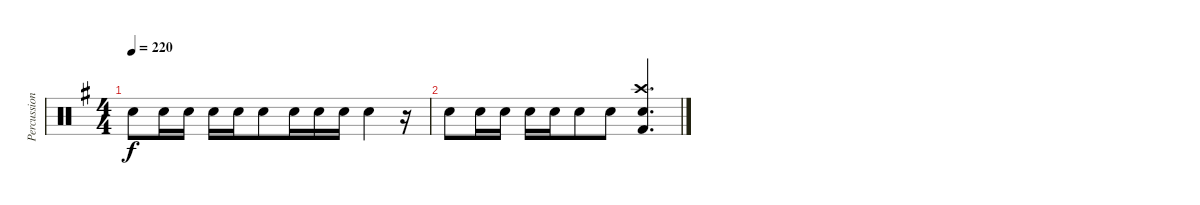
\track ("Percussion" "Percussion") {instrument percussion}
\staff {score}
\articulation defaults
\ts (4 4)
\tempo 220
\clef neutral
\ks eminor "Snare (hit) 2".8{dy f} "Snare (hit) 2".16 "Snare (hit) 2".16 "Snare (hit) 2".16{beam merge} "Snare (hit) 2".16{beam merge} "Snare (hit) 2".8{beam merge} "Snare (hit) 2".16 "Snare (hit) 2".16{beam merge} "Snare (hit) 2".16 "Snare (hit) 2".4{beam merge}
r.16 |
"Snare (hit) 2".8 "Snare (hit) 2".16 "Snare (hit) 2".16 "Snare (hit) 2".16{beam merge} "Snare (hit) 2".16{beam merge} "Snare (hit) 2".8{beam merge} "Snare (hit) 2".8 ("Crash high (hit)" "Snare (hit) 2" "Kick (hit) 2").4{d}
